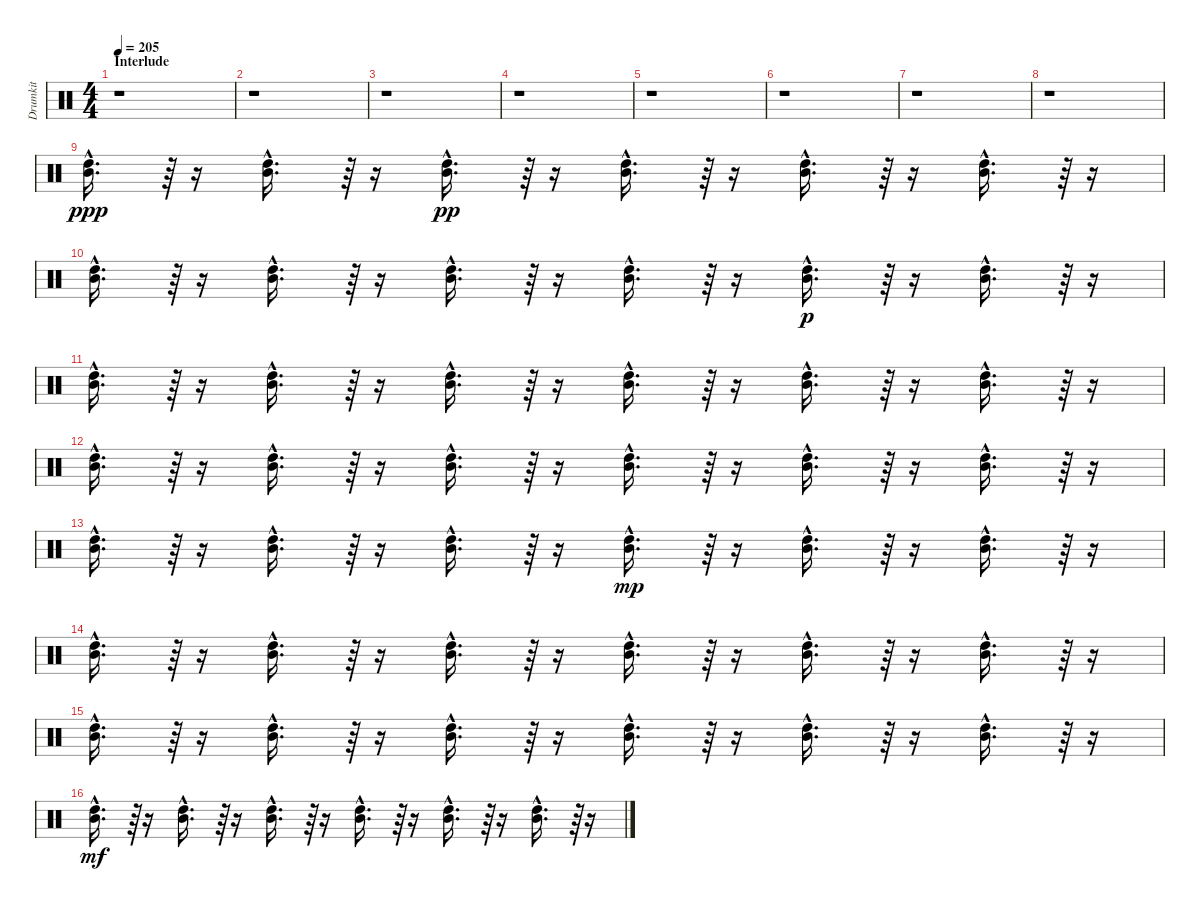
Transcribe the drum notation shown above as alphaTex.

\track ("Drumkit" "Drumkit") {instrument percussion}
\staff {score}
\articulation defaults
\ts (4 4)
\section ("" "Interlude")
\tempo 205
\clef neutral
\ks c
r.1{dy fff} |
r.1 |
r.1 |
r.1 |
r.1 |
r.1 |
r.1 |
r.1 |
("Mid Tom (hit)"{hac} "High Tom (hit)"{hac}).16{d dy ppp} r.64{tu (3 2)} r.16 ("Mid Tom (hit)"{hac} "High Tom (hit)"{hac}).16{d} r.64{tu (3 2)} r.16 ("Mid Tom (hit)"{hac} "High Tom (hit)"{hac}).16{d dy pp} r.64{tu (3 2)} r.16 ("Mid Tom (hit)"{hac} "High Tom (hit)"{hac}).16{d} r.64{tu (3 2)} r.16 ("Mid Tom (hit)"{hac} "High Tom (hit)"{hac}).16{d} r.64{tu (3 2)} r.16 ("Mid Tom (hit)"{hac} "High Tom (hit)"{hac}).16{d} r.64{tu (3 2)} r.16 |
("Mid Tom (hit)"{hac} "High Tom (hit)"{hac}).16{d} r.64{tu (3 2)} r.16 ("Mid Tom (hit)"{hac} "High Tom (hit)"{hac}).16{d} r.64{tu (3 2)} r.16 ("Mid Tom (hit)"{hac} "High Tom (hit)"{hac}).16{d} r.64{tu (3 2)} r.16 ("Mid Tom (hit)"{hac} "High Tom (hit)"{hac}).16{d} r.64{tu (3 2)} r.16 ("Mid Tom (hit)"{hac} "High Tom (hit)"{hac}).16{d dy p} r.64{tu (3 2)} r.16 ("Mid Tom (hit)"{hac} "High Tom (hit)"{hac}).16{d} r.64{tu (3 2)} r.16 |
("Mid Tom (hit)"{hac} "High Tom (hit)"{hac}).16{d} r.64{tu (3 2)} r.16 ("Mid Tom (hit)"{hac} "High Tom (hit)"{hac}).16{d} r.64{tu (3 2)} r.16 ("Mid Tom (hit)"{hac} "High Tom (hit)"{hac}).16{d} r.64{tu (3 2)} r.16 ("Mid Tom (hit)"{hac} "High Tom (hit)"{hac}).16{d} r.64{tu (3 2)} r.16 ("Mid Tom (hit)"{hac} "High Tom (hit)"{hac}).16{d} r.64{tu (3 2)} r.16 ("Mid Tom (hit)"{hac} "High Tom (hit)"{hac}).16{d} r.64{tu (3 2)} r.16 |
("Mid Tom (hit)"{hac} "High Tom (hit)"{hac}).16{d} r.64{tu (3 2)} r.16 ("Mid Tom (hit)"{hac} "High Tom (hit)"{hac}).16{d} r.64{tu (3 2)} r.16 ("Mid Tom (hit)"{hac} "High Tom (hit)"{hac}).16{d} r.64{tu (3 2)} r.16 ("Mid Tom (hit)"{hac} "High Tom (hit)"{hac}).16{d} r.64{tu (3 2)} r.16 ("Mid Tom (hit)"{hac} "High Tom (hit)"{hac}).16{d} r.64{tu (3 2)} r.16 ("Mid Tom (hit)"{hac} "High Tom (hit)"{hac}).16{d} r.64{tu (3 2)} r.16 |
("Mid Tom (hit)"{hac} "High Tom (hit)"{hac}).16{d} r.64{tu (3 2)} r.16 ("Mid Tom (hit)"{hac} "High Tom (hit)"{hac}).16{d} r.64{tu (3 2)} r.16 ("Mid Tom (hit)"{hac} "High Tom (hit)"{hac}).16{d} r.64{tu (3 2)} r.16 ("Mid Tom (hit)"{hac} "High Tom (hit)"{hac}).16{d dy mp} r.64{tu (3 2)} r.16 ("Mid Tom (hit)"{hac} "High Tom (hit)"{hac}).16{d} r.64{tu (3 2)} r.16 ("Mid Tom (hit)"{hac} "High Tom (hit)"{hac}).16{d} r.64{tu (3 2)} r.16 |
("Mid Tom (hit)"{hac} "High Tom (hit)"{hac}).16{d} r.64{tu (3 2)} r.16 ("Mid Tom (hit)"{hac} "High Tom (hit)"{hac}).16{d} r.64{tu (3 2)} r.16 ("Mid Tom (hit)"{hac} "High Tom (hit)"{hac}).16{d} r.64{tu (3 2)} r.16 ("Mid Tom (hit)"{hac} "High Tom (hit)"{hac}).16{d} r.64{tu (3 2)} r.16 ("Mid Tom (hit)"{hac} "High Tom (hit)"{hac}).16{d} r.64{tu (3 2)} r.16 ("Mid Tom (hit)"{hac} "High Tom (hit)"{hac}).16{d} r.64{tu (3 2)} r.16 |
("Mid Tom (hit)"{hac} "High Tom (hit)"{hac}).16{d} r.64{tu (3 2)} r.16 ("Mid Tom (hit)"{hac} "High Tom (hit)"{hac}).16{d} r.64{tu (3 2)} r.16 ("Mid Tom (hit)"{hac} "High Tom (hit)"{hac}).16{d} r.64{tu (3 2)} r.16 ("Mid Tom (hit)"{hac} "High Tom (hit)"{hac}).16{d} r.64{tu (3 2)} r.16 ("Mid Tom (hit)"{hac} "High Tom (hit)"{hac}).16{d} r.64{tu (3 2)} r.16 ("Mid Tom (hit)"{hac} "High Tom (hit)"{hac}).16{d} r.64{tu (3 2)} r.16 |
("Mid Tom (hit)"{hac} "High Tom (hit)"{hac}).16{d dy mf} r.64{tu (3 2)} r.16 ("Mid Tom (hit)"{hac} "High Tom (hit)"{hac}).16{d} r.64{tu (3 2)} r.16 ("Mid Tom (hit)"{hac} "High Tom (hit)"{hac}).16{d} r.64{tu (3 2)} r.16 ("Mid Tom (hit)"{hac} "High Tom (hit)"{hac}).16{d} r.64{tu (3 2)} r.16 ("Mid Tom (hit)"{hac} "High Tom (hit)"{hac}).16{d} r.64{tu (3 2)} r.16 ("Mid Tom (hit)"{hac} "High Tom (hit)"{hac}).16{d} r.64{tu (3 2)} r.16
